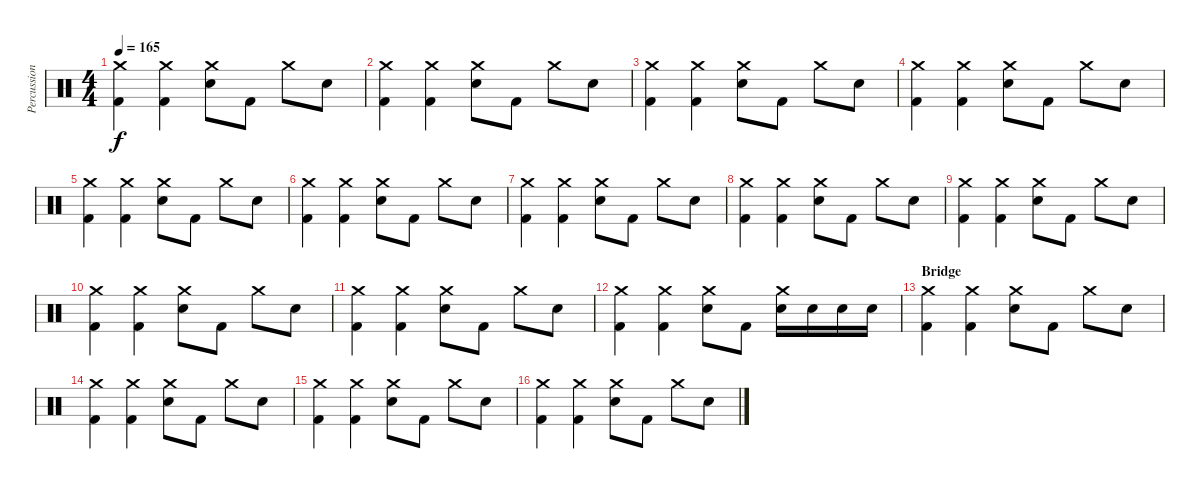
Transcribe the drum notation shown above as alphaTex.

\track ("Percussion" "Percussion") {instrument percussion}
\staff {score}
\articulation defaults
\ts (4 4)
\tempo 165
\clef neutral
\ks c
("Crash medium (hit)" "Kick (hit) 2").4{dy f} ("Crash medium (hit)" "Kick (hit) 2").4 ("Crash medium (hit)" "Snare (hit) 2").8 "Kick (hit) 2".8 "Crash medium (hit)".8 "Snare (hit) 2".8 |
("Crash medium (hit)" "Kick (hit) 2").4 ("Crash medium (hit)" "Kick (hit) 2").4 ("Crash medium (hit)" "Snare (hit) 2").8 "Kick (hit) 2".8 "Crash medium (hit)".8 "Snare (hit) 2".8 |
("Crash medium (hit)" "Kick (hit) 2").4 ("Crash medium (hit)" "Kick (hit) 2").4 ("Crash medium (hit)" "Snare (hit) 2").8 "Kick (hit) 2".8 "Crash medium (hit)".8 "Snare (hit) 2".8 |
("Crash medium (hit)" "Kick (hit) 2").4 ("Crash medium (hit)" "Kick (hit) 2").4 ("Crash medium (hit)" "Snare (hit) 2").8 "Kick (hit) 2".8 "Crash medium (hit)".8 "Snare (hit) 2".8 |
("Crash medium (hit)" "Kick (hit) 2").4 ("Crash medium (hit)" "Kick (hit) 2").4 ("Crash medium (hit)" "Snare (hit) 2").8 "Kick (hit) 2".8 "Crash medium (hit)".8 "Snare (hit) 2".8 |
("Crash medium (hit)" "Kick (hit) 2").4 ("Crash medium (hit)" "Kick (hit) 2").4 ("Crash medium (hit)" "Snare (hit) 2").8 "Kick (hit) 2".8 "Crash medium (hit)".8 "Snare (hit) 2".8 |
("Crash medium (hit)" "Kick (hit) 2").4 ("Crash medium (hit)" "Kick (hit) 2").4 ("Crash medium (hit)" "Snare (hit) 2").8 "Kick (hit) 2".8 "Crash medium (hit)".8 "Snare (hit) 2".8 |
("Crash medium (hit)" "Kick (hit) 2").4 ("Crash medium (hit)" "Kick (hit) 2").4 ("Crash medium (hit)" "Snare (hit) 2").8 "Kick (hit) 2".8 "Crash medium (hit)".8 "Snare (hit) 2".8 |
("Crash medium (hit)" "Kick (hit) 2").4 ("Crash medium (hit)" "Kick (hit) 2").4 ("Crash medium (hit)" "Snare (hit) 2").8 "Kick (hit) 2".8 "Crash medium (hit)".8 "Snare (hit) 2".8 |
("Crash medium (hit)" "Kick (hit) 2").4 ("Crash medium (hit)" "Kick (hit) 2").4 ("Crash medium (hit)" "Snare (hit) 2").8 "Kick (hit) 2".8 "Crash medium (hit)".8 "Snare (hit) 2".8 |
("Crash medium (hit)" "Kick (hit) 2").4 ("Crash medium (hit)" "Kick (hit) 2").4 ("Crash medium (hit)" "Snare (hit) 2").8 "Kick (hit) 2".8 "Crash medium (hit)".8 "Snare (hit) 2".8 |
("Crash medium (hit)" "Kick (hit) 2").4 ("Crash medium (hit)" "Kick (hit) 2").4 ("Crash medium (hit)" "Snare (hit) 2").8 "Kick (hit) 2".8 ("Crash medium (hit)" "Snare (hit) 2").16 "Snare (hit) 2".16 "Snare (hit) 2".16 "Snare (hit) 2".16 |
\section ("" "Bridge")
("Crash medium (hit)" "Kick (hit) 2").4 ("Crash medium (hit)" "Kick (hit) 2").4 ("Crash medium (hit)" "Snare (hit) 2").8 "Kick (hit) 2".8 "Crash medium (hit)".8 "Snare (hit) 2".8 |
("Crash medium (hit)" "Kick (hit) 2").4 ("Crash medium (hit)" "Kick (hit) 2").4 ("Crash medium (hit)" "Snare (hit) 2").8 "Kick (hit) 2".8 "Crash medium (hit)".8 "Snare (hit) 2".8 |
("Crash medium (hit)" "Kick (hit) 2").4 ("Crash medium (hit)" "Kick (hit) 2").4 ("Crash medium (hit)" "Snare (hit) 2").8 "Kick (hit) 2".8 "Crash medium (hit)".8 "Snare (hit) 2".8 |
("Crash medium (hit)" "Kick (hit) 2").4 ("Crash medium (hit)" "Kick (hit) 2").4 ("Crash medium (hit)" "Snare (hit) 2").8 "Kick (hit) 2".8 "Crash medium (hit)".8 "Snare (hit) 2".8
